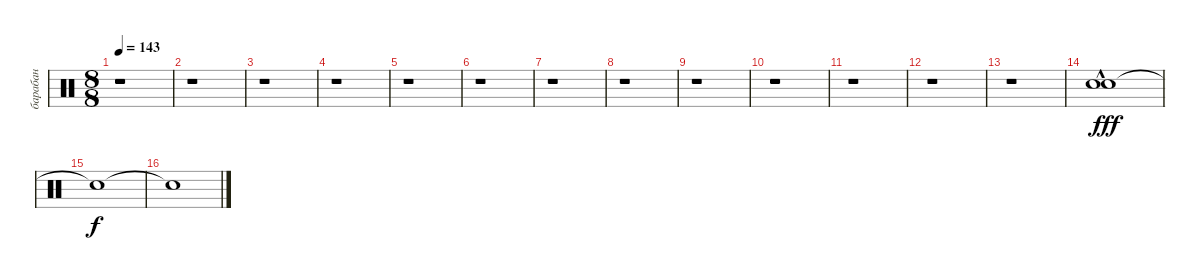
\track ("барабан" "барабан") {instrument percussion}
\staff {score}
\articulation defaults
\ts (8 8)
\tempo 143
\clef neutral
\ks c
r.1{dy fff} |
r.1 |
r.1 |
r.1 |
r.1 |
r.1 |
r.1 |
r.1 |
r.1 |
r.1 |
r.1 |
r.1 |
r.1 |
("Snare (hit) 2" "Snare (hit) 2"{hac}).1 |
"Snare (hit)"{t}.1{dy f} |
"Snare (hit)"{t}.1
